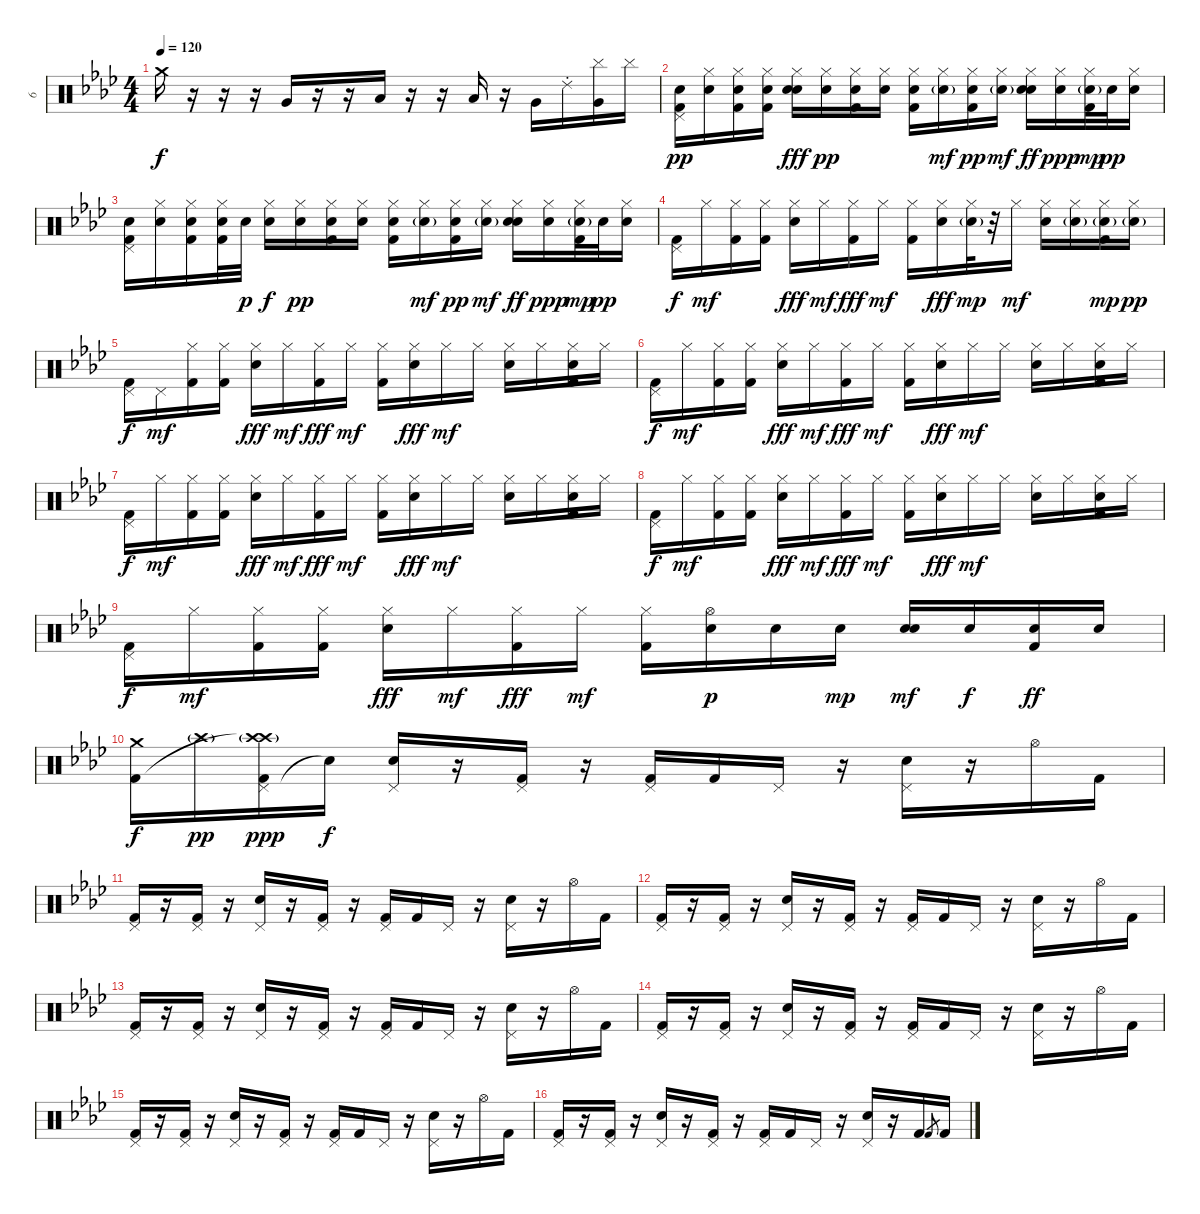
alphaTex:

\track ("6" "6") {instrument percussion}
\staff {score}
\articulation defaults
\ts (4 4)
\tempo 120
\clef neutral
\ks fminor "Crash medium (hit)".16{dy f}
r.16 r.16 r.16 "Very Low Tom (hit)".16 r.16 r.16 "Low Floor Tom (hit)".16 r.16 r.16 "Low Tom (hit)".16 r.16 "Very Low Tom (hit)".16 "Ride (choke) 2".16 ("Cymbal (hit)" "Very Low Tom (hit)").16 "Cymbal (hit)".16 |
\ks ab
("Pedal Hi-Hat (hit)" "Electric Snare (hit)" "Kick (hit) 2").16{dy pp} ("Hi-Hat (closed)" "Electric Snare (hit)").16 ("Hi-Hat (closed)" "Electric Snare (hit)" "Kick (hit) 2").16 ("Hi-Hat (closed)" "Electric Snare (hit)" "Kick (hit) 2").16 ("Hi-Hat (closed)" "Electric Snare (hit)" "Electric Snare (hit)").16{dy fff} ("Hi-Hat (closed)" "Electric Snare (hit)").16{dy pp} ("Hi-Hat (closed)" "Electric Snare (hit)" "Kick (hit) 2").16 ("Hi-Hat (closed)" "Electric Snare (hit)").16 ("Hi-Hat (closed)" "Electric Snare (hit)" "Kick (hit) 2").16 ("Hi-Hat (closed)" "Electric Snare (hit)"{g}).16{dy mf} ("Hi-Hat (closed)" "Electric Snare (hit)" "Kick (hit) 2").16{dy pp} ("Hi-Hat (closed)" "Electric Snare (hit)"{g}).16{dy mf} ("Hi-Hat (closed)" "Electric Snare (hit)" "Electric Snare (hit)").16{dy ff} ("Hi-Hat (closed)" "Electric Snare (hit)").16{dy ppp} ("Hi-Hat (closed)" "Electric Snare (hit)"{g} "Kick (hit) 2").32{dy mp} "Electric Snare (hit)".32{dy pp} ("Hi-Hat (closed)" "Electric Snare (hit)").16 |
("Pedal Hi-Hat (hit)" "Electric Snare (hit)" "Kick (hit) 2").16 ("Hi-Hat (closed)" "Electric Snare (hit)").16 ("Hi-Hat (closed)" "Electric Snare (hit)" "Kick (hit) 2").16 ("Hi-Hat (closed)" "Electric Snare (hit)" "Kick (hit) 2").32 "Electric Snare (hit)".32{dy p} ("Hi-Hat (closed)" "Electric Snare (hit)").16{dy f} ("Hi-Hat (closed)" "Electric Snare (hit)").16{dy pp} ("Hi-Hat (closed)" "Electric Snare (hit)" "Kick (hit) 2").16 ("Hi-Hat (closed)" "Electric Snare (hit)").16 ("Hi-Hat (closed)" "Electric Snare (hit)" "Kick (hit) 2").16 ("Hi-Hat (closed)" "Electric Snare (hit)"{g}).16{dy mf} ("Hi-Hat (closed)" "Electric Snare (hit)" "Kick (hit) 2").16{dy pp} ("Hi-Hat (closed)" "Electric Snare (hit)"{g}).16{dy mf} ("Hi-Hat (closed)" "Electric Snare (hit)" "Electric Snare (hit)").16{dy ff} ("Hi-Hat (closed)" "Electric Snare (hit)").16{dy ppp} ("Hi-Hat (closed)" "Electric Snare (hit)"{g} "Kick (hit) 2").32{dy mp} "Electric Snare (hit)".32{dy pp} ("Hi-Hat (closed)" "Electric Snare (hit)").16 |
("Pedal Hi-Hat (hit)" "Kick (hit) 2").16{dy f} "Hi-Hat (closed)".16{dy mf} ("Hi-Hat (closed)" "Kick (hit) 2").16 ("Hi-Hat (closed)" "Kick (hit) 2").16 ("Hi-Hat (closed)" "Electric Snare (hit)").16{dy fff} "Hi-Hat (closed)".16{dy mf} ("Hi-Hat (closed)" "Kick (hit) 2").16{dy fff} "Hi-Hat (closed)".16{dy mf} ("Hi-Hat (closed)" "Kick (hit) 2").16 ("Hi-Hat (closed)" "Electric Snare (hit)").16{dy fff} ("Hi-Hat (closed)" "Electric Snare (hit)"{g}).32{dy mp} r.32 "Hi-Hat (closed)".16{dy mf} ("Hi-Hat (closed)" "Electric Snare (hit)").16 ("Hi-Hat (closed)" "Electric Snare (hit)"{g}).16 ("Hi-Hat (closed)" "Electric Snare (hit)"{g} "Kick (hit) 2").16{dy mp} ("Hi-Hat (closed)" "Electric Snare (hit)"{g}).16{dy pp} |
("Pedal Hi-Hat (hit)" "Kick (hit) 2").16{dy f} "Pedal Hi-Hat (hit)".16{dy mf} ("Hi-Hat (closed)" "Kick (hit) 2").16 ("Hi-Hat (closed)" "Kick (hit) 2").16 ("Hi-Hat (closed)" "Electric Snare (hit)").16{dy fff} "Hi-Hat (closed)".16{dy mf} ("Hi-Hat (closed)" "Kick (hit) 2").16{dy fff} "Hi-Hat (closed)".16{dy mf} ("Hi-Hat (closed)" "Kick (hit) 2").16 ("Hi-Hat (closed)" "Electric Snare (hit)").16{dy fff} "Hi-Hat (closed)".16{dy mf} "Hi-Hat (closed)".16 ("Hi-Hat (closed)" "Electric Snare (hit)").16 "Hi-Hat (closed)".16 ("Hi-Hat (closed)" "Electric Snare (hit)" "Kick (hit) 2").16 "Hi-Hat (closed)".16 |
("Pedal Hi-Hat (hit)" "Kick (hit) 2").16{dy f} "Hi-Hat (closed)".16{dy mf} ("Hi-Hat (closed)" "Kick (hit) 2").16 ("Hi-Hat (closed)" "Kick (hit) 2").16 ("Hi-Hat (closed)" "Electric Snare (hit)").16{dy fff} "Hi-Hat (closed)".16{dy mf} ("Hi-Hat (closed)" "Kick (hit) 2").16{dy fff} "Hi-Hat (closed)".16{dy mf} ("Hi-Hat (closed)" "Kick (hit) 2").16 ("Hi-Hat (closed)" "Electric Snare (hit)").16{dy fff} "Hi-Hat (closed)".16{dy mf} "Hi-Hat (closed)".16 ("Hi-Hat (closed)" "Electric Snare (hit)").16 "Hi-Hat (closed)".16 ("Hi-Hat (closed)" "Electric Snare (hit)" "Kick (hit) 2").16 "Hi-Hat (closed)".16 |
("Pedal Hi-Hat (hit)" "Kick (hit) 2").16{dy f} "Hi-Hat (closed)".16{dy mf} ("Hi-Hat (closed)" "Kick (hit) 2").16 ("Hi-Hat (closed)" "Kick (hit) 2").16 ("Hi-Hat (closed)" "Electric Snare (hit)").16{dy fff} "Hi-Hat (closed)".16{dy mf} ("Hi-Hat (closed)" "Kick (hit) 2").16{dy fff} "Hi-Hat (closed)".16{dy mf} ("Hi-Hat (closed)" "Kick (hit) 2").16 ("Hi-Hat (closed)" "Electric Snare (hit)").16{dy fff} "Hi-Hat (closed)".16{dy mf} "Hi-Hat (closed)".16 ("Hi-Hat (closed)" "Electric Snare (hit)").16 "Hi-Hat (closed)".16 ("Hi-Hat (closed)" "Electric Snare (hit)" "Kick (hit) 2").16 "Hi-Hat (closed)".16 |
("Pedal Hi-Hat (hit)" "Kick (hit) 2").16{dy f} "Hi-Hat (closed)".16{dy mf} ("Hi-Hat (closed)" "Kick (hit) 2").16 ("Hi-Hat (closed)" "Kick (hit) 2").16 ("Hi-Hat (closed)" "Electric Snare (hit)").16{dy fff} "Hi-Hat (closed)".16{dy mf} ("Hi-Hat (closed)" "Kick (hit) 2").16{dy fff} "Hi-Hat (closed)".16{dy mf} ("Hi-Hat (closed)" "Kick (hit) 2").16 ("Hi-Hat (closed)" "Electric Snare (hit)").16{dy fff} "Hi-Hat (closed)".16{dy mf} "Hi-Hat (closed)".16 ("Hi-Hat (closed)" "Electric Snare (hit)").16 "Hi-Hat (closed)".16 ("Hi-Hat (closed)" "Electric Snare (hit)" "Kick (hit) 2").16 "Hi-Hat (closed)".16 |
("Pedal Hi-Hat (hit)" "Kick (hit) 2").16{dy f} "Hi-Hat (closed)".16{dy mf} ("Hi-Hat (closed)" "Kick (hit) 2").16 ("Hi-Hat (closed)" "Kick (hit) 2").16 ("Hi-Hat (closed)" "Electric Snare (hit)").16{dy fff} "Hi-Hat (closed)".16{dy mf} ("Hi-Hat (closed)" "Kick (hit) 2").16{dy fff} "Hi-Hat (closed)".16{dy mf} ("Hi-Hat (closed)" "Kick (hit) 2").16 ("Hi-Hat (open)" "Electric Snare (hit)").16{dy p} "Electric Snare (hit)".16 "Electric Snare (hit)".16{dy mp} ("Electric Snare (hit)" "Electric Snare (hit)").16{dy mf} "Electric Snare (hit)".16{dy f} ("Electric Snare (hit)" "Kick (hit) 2").16{dy ff} "Electric Snare (hit)".16 |
\ks fminor
("Crash medium (hit)" "Kick (hit) 2").16{dy f} "Crash high (hit)"{g}.16{dy pp} ("Pedal Hi-Hat (hit)" "Crash high (hit)"{t} "Crash high (hit)"{g} "Kick (hit) 2").16{dy ppp} "Snare (hit)"{t}.16{dy f} ("Pedal Hi-Hat (hit)" "Electric Snare (hit)").16 r.16 ("Pedal Hi-Hat (hit)" "Kick (hit) 2").16 r.16 ("Pedal Hi-Hat (hit)" "Kick (hit) 2").16 "Kick (hit) 2".16 "Pedal Hi-Hat (hit)".16 r.16 ("Pedal Hi-Hat (hit)" "Electric Snare (hit)").16 r.16 "Hi-Hat (open)".16 "Kick (hit) 2".16 |
("Pedal Hi-Hat (hit)" "Kick (hit) 2").16 r.16 ("Pedal Hi-Hat (hit)" "Kick (hit) 2").16 r.16 ("Pedal Hi-Hat (hit)" "Electric Snare (hit)").16 r.16 ("Pedal Hi-Hat (hit)" "Kick (hit) 2").16 r.16 ("Pedal Hi-Hat (hit)" "Kick (hit) 2").16 "Kick (hit) 2".16 "Pedal Hi-Hat (hit)".16 r.16 ("Pedal Hi-Hat (hit)" "Electric Snare (hit)").16 r.16 "Hi-Hat (open)".16 "Kick (hit) 2".16 |
("Pedal Hi-Hat (hit)" "Kick (hit) 2").16 r.16 ("Pedal Hi-Hat (hit)" "Kick (hit) 2").16 r.16 ("Pedal Hi-Hat (hit)" "Electric Snare (hit)").16 r.16 ("Pedal Hi-Hat (hit)" "Kick (hit) 2").16 r.16 ("Pedal Hi-Hat (hit)" "Kick (hit) 2").16 "Kick (hit) 2".16 "Pedal Hi-Hat (hit)".16 r.16 ("Pedal Hi-Hat (hit)" "Electric Snare (hit)").16 r.16 "Hi-Hat (open)".16 "Kick (hit) 2".16 |
("Pedal Hi-Hat (hit)" "Kick (hit) 2").16 r.16 ("Pedal Hi-Hat (hit)" "Kick (hit) 2").16 r.16 ("Pedal Hi-Hat (hit)" "Electric Snare (hit)").16 r.16 ("Pedal Hi-Hat (hit)" "Kick (hit) 2").16 r.16 ("Pedal Hi-Hat (hit)" "Kick (hit) 2").16 "Kick (hit) 2".16 "Pedal Hi-Hat (hit)".16 r.16 ("Pedal Hi-Hat (hit)" "Electric Snare (hit)").16 r.16 "Hi-Hat (open)".16 "Kick (hit) 2".16 |
("Pedal Hi-Hat (hit)" "Kick (hit) 2").16 r.16 ("Pedal Hi-Hat (hit)" "Kick (hit) 2").16 r.16 ("Pedal Hi-Hat (hit)" "Electric Snare (hit)").16 r.16 ("Pedal Hi-Hat (hit)" "Kick (hit) 2").16 r.16 ("Pedal Hi-Hat (hit)" "Kick (hit) 2").16 "Kick (hit) 2".16 "Pedal Hi-Hat (hit)".16 r.16 ("Pedal Hi-Hat (hit)" "Electric Snare (hit)").16 r.16 "Hi-Hat (open)".16 "Kick (hit) 2".16 |
("Pedal Hi-Hat (hit)" "Kick (hit) 2").16 r.16 ("Pedal Hi-Hat (hit)" "Kick (hit) 2").16 r.16 ("Pedal Hi-Hat (hit)" "Electric Snare (hit)").16 r.16 ("Pedal Hi-Hat (hit)" "Kick (hit) 2").16 r.16 ("Pedal Hi-Hat (hit)" "Kick (hit) 2").16 "Kick (hit) 2".16 "Pedal Hi-Hat (hit)".16 r.16 ("Pedal Hi-Hat (hit)" "Electric Snare (hit)").16 r.16 "Hi-Hat (open)".16 "Kick (hit) 2".16 |
("Pedal Hi-Hat (hit)" "Kick (hit) 2").16 r.16 ("Pedal Hi-Hat (hit)" "Kick (hit) 2").16 r.16 ("Pedal Hi-Hat (hit)" "Electric Snare (hit)").16 r.16 ("Pedal Hi-Hat (hit)" "Kick (hit) 2").16 r.16 ("Pedal Hi-Hat (hit)" "Kick (hit) 2").16 "Kick (hit) 2".16 "Pedal Hi-Hat (hit)".16 r.16 ("Pedal Hi-Hat (hit)" "Electric Snare (hit)").16 r.16 "Kick (hit) 2".16 "Kick (hit) 2".8{gr} "Kick (hit) 2".16
